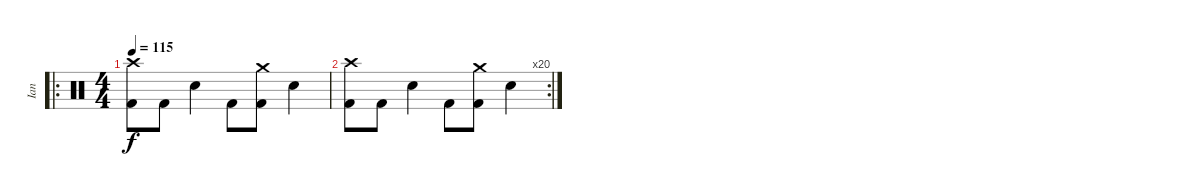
\track ("Ian" "Ian") {instrument percussion}
\staff {score}
\articulation defaults
\ro
\ts (4 4)
\tempo 115
\clef neutral
\ks c
("Crash high (hit)" "Kick (hit) 2").8{dy f} "Kick (hit) 2".8 "Snare (hit) 2".4 "Kick (hit) 2".8 ("Crash medium (hit)" "Kick (hit) 2").8 "Snare (hit) 2".4 |
\rc 20
("Crash high (hit)" "Kick (hit) 2").8 "Kick (hit) 2".8 "Snare (hit) 2".4 "Kick (hit) 2".8 ("Crash medium (hit)" "Kick (hit) 2").8 "Snare (hit) 2".4
